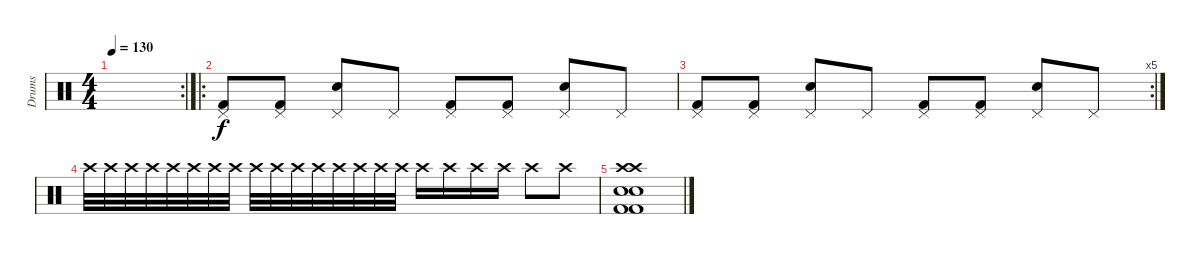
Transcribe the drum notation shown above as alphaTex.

\track ("Drums" "Drums") {instrument percussion}
\staff {score}
\articulation defaults
\rc 2
\ts (4 4)
\tempo 130
\clef neutral
\ks c
|
\ro
("Pedal Hi-Hat (hit)" "Kick (hit) 2").8 ("Pedal Hi-Hat (hit)" "Kick (hit) 2").8 ("Pedal Hi-Hat (hit)" "Snare (hit) 2").8 "Pedal Hi-Hat (hit)".8 ("Pedal Hi-Hat (hit)" "Kick (hit) 2").8 ("Pedal Hi-Hat (hit)" "Kick (hit) 2").8 ("Pedal Hi-Hat (hit)" "Snare (hit) 2").8 "Pedal Hi-Hat (hit)".8 |
\rc 5
("Pedal Hi-Hat (hit)" "Kick (hit) 2").8 ("Pedal Hi-Hat (hit)" "Kick (hit) 2").8 ("Pedal Hi-Hat (hit)" "Snare (hit) 2").8 "Pedal Hi-Hat (hit)".8 ("Pedal Hi-Hat (hit)" "Kick (hit) 2").8 ("Pedal Hi-Hat (hit)" "Kick (hit) 2").8 ("Pedal Hi-Hat (hit)" "Snare (hit) 2").8 "Pedal Hi-Hat (hit)".8 |
"Crash high (hit)".32 "Crash high (hit)".32 "Crash high (hit)".32 "Crash high (hit)".32 "Crash high (hit)".32 "Crash high (hit)".32 "Crash high (hit)".32 "Crash high (hit)".32 "Crash high (hit)".32 "Crash high (hit)".32 "Crash high (hit)".32 "Crash high (hit)".32 "Crash high (hit)".32 "Crash high (hit)".32 "Crash high (hit)".32 "Crash high (hit)".32 "Crash high (hit)".16 "Crash high (hit)".16 "Crash high (hit)".16 "Crash high (hit)".16 "Crash high (hit)".8 "Crash high (hit)".8 |
("Crash high (hit)" "Crash high (hit)" "Kick (hit) 2" "Kick (hit) 2" "Snare (hit) 2" "Snare (hit) 2").1
